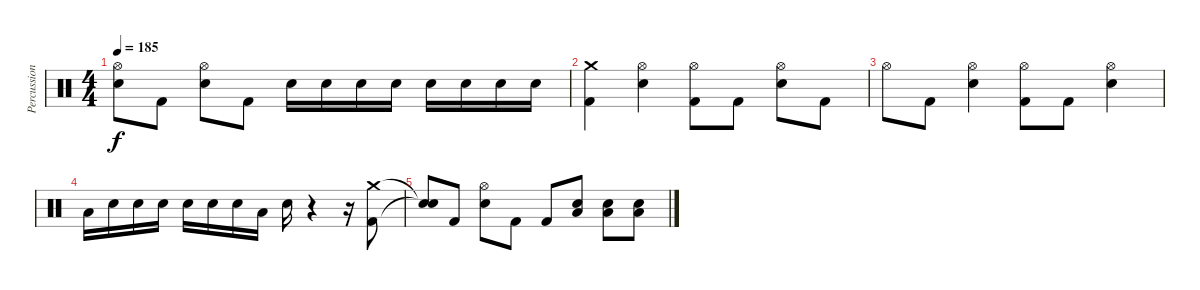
\track ("Percussion" "Percussion") {instrument percussion}
\staff {score}
\articulation defaults
\ts (4 4)
\tempo 185
\clef neutral
\ks c
("Hi-Hat (open)" "Electric Snare (hit)").8{dy f} "Kick (hit) 2".8 ("Hi-Hat (open)" "Electric Snare (hit)").8 "Kick (hit) 2".8 "Electric Snare (hit)".16 "Electric Snare (hit)".16 "Electric Snare (hit)".16 "Electric Snare (hit)".16 "Electric Snare (hit)".16 "Electric Snare (hit)".16 "Electric Snare (hit)".16 "Electric Snare (hit)".16 |
("Crash medium (hit)" "Kick (hit) 2").4 ("Hi-Hat (open)" "Electric Snare (hit)").4 ("Hi-Hat (open)" "Kick (hit) 2").8 "Kick (hit) 2".8 ("Hi-Hat (open)" "Electric Snare (hit)").8 "Kick (hit) 2".8 |
"Hi-Hat (open)".8 "Kick (hit) 2".8 ("Hi-Hat (open)" "Electric Snare (hit)").4 ("Hi-Hat (open)" "Kick (hit) 2").8 "Kick (hit) 2".8 ("Hi-Hat (open)" "Electric Snare (hit)").4 |
"Low Tom (hit)".16 "Electric Snare (hit)".16 "Electric Snare (hit)".16 "Electric Snare (hit)".16 "Electric Snare (hit)".16 "Electric Snare (hit)".16 "Electric Snare (hit)".16 "Low Tom (hit)".16 "Electric Snare (hit)".16 r.4 r.16 ("Crash medium (hit)" "Kick (hit) 2").8 |
("Snare (hit)"{t} "Snare (hit)"{t}).8 "Kick (hit) 2".8 ("Hi-Hat (open)" "Electric Snare (hit)").8 "Kick (hit) 2".8 "Kick (hit) 2".8 ("Low Floor Tom (hit)" "Electric Snare (hit)").8 ("Low Floor Tom (hit)" "Electric Snare (hit)").8 ("Low Floor Tom (hit)" "Electric Snare (hit)").8
